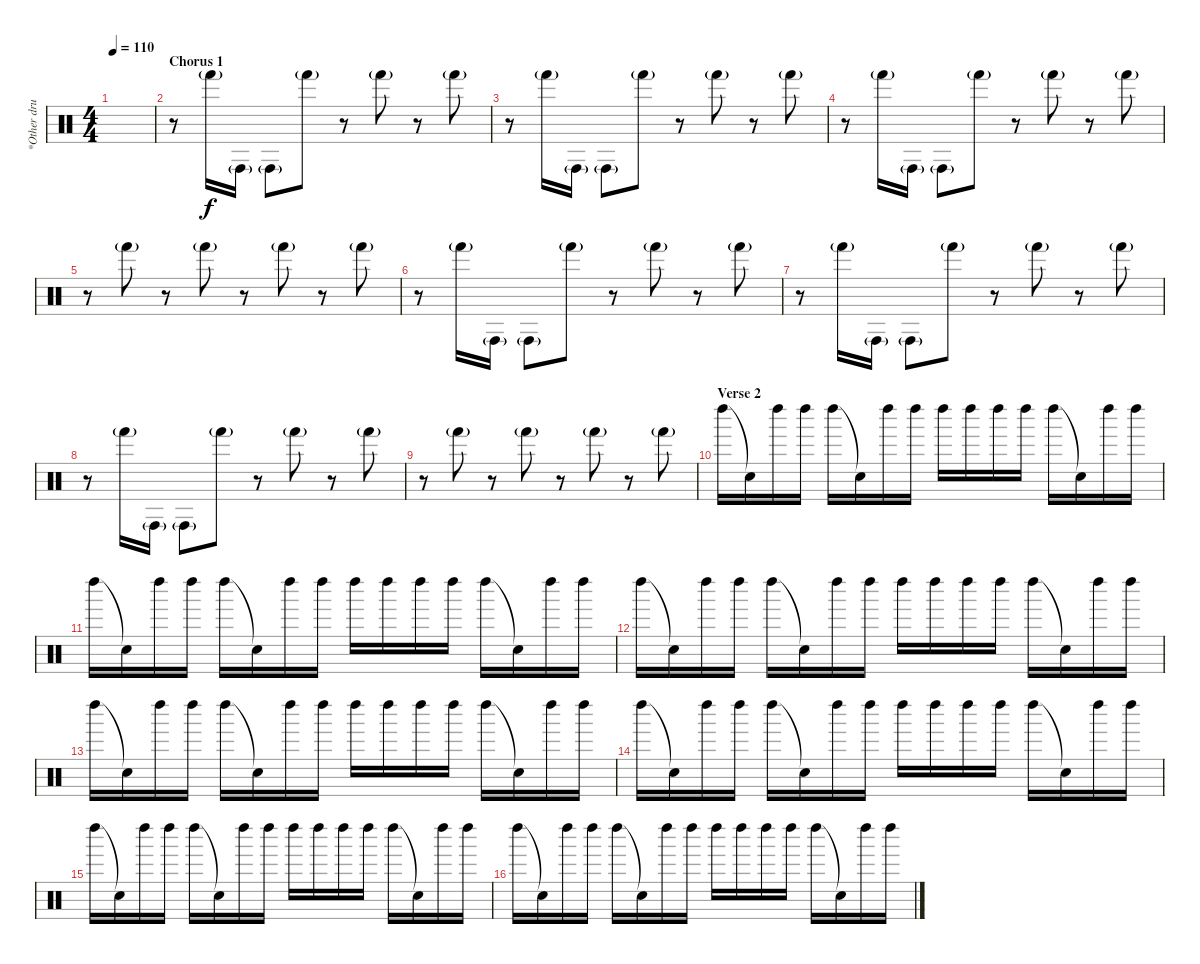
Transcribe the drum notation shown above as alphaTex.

\track ("*Other drums" "*Other dru") {instrument percussion}
\staff {score}
\articulation defaults
\ts (4 4)
\tempo 110
\clef neutral
\ks c
|
\section ("" "Chorus 1")
r.8 "Hand (hit)"{g}.16 "Conga high (hit)"{g}.16 "Conga high (hit)"{g}.8 "Hand (hit)"{g}.8 r.8 "Hand (hit)"{g}.8 r.8 "Hand (hit)"{g}.8 |
r.8 "Hand (hit)"{g}.16 "Conga high (hit)"{g}.16 "Conga high (hit)"{g}.8 "Hand (hit)"{g}.8 r.8 "Hand (hit)"{g}.8 r.8 "Hand (hit)"{g}.8 |
r.8 "Hand (hit)"{g}.16 "Conga high (hit)"{g}.16 "Conga high (hit)"{g}.8 "Hand (hit)"{g}.8 r.8 "Hand (hit)"{g}.8 r.8 "Hand (hit)"{g}.8 |
r.8 "Hand (hit)"{g}.8 r.8 "Hand (hit)"{g}.8 r.8 "Hand (hit)"{g}.8 r.8 "Hand (hit)"{g}.8 |
r.8 "Hand (hit)"{g}.16 "Conga high (hit)"{g}.16 "Conga high (hit)"{g}.8 "Hand (hit)"{g}.8 r.8 "Hand (hit)"{g}.8 r.8 "Hand (hit)"{g}.8 |
r.8 "Hand (hit)"{g}.16 "Conga high (hit)"{g}.16 "Conga high (hit)"{g}.8 "Hand (hit)"{g}.8 r.8 "Hand (hit)"{g}.8 r.8 "Hand (hit)"{g}.8 |
r.8 "Hand (hit)"{g}.16 "Conga high (hit)"{g}.16 "Conga high (hit)"{g}.8 "Hand (hit)"{g}.8 r.8 "Hand (hit)"{g}.8 r.8 "Hand (hit)"{g}.8 |
r.8 "Hand (hit)"{g}.8 r.8 "Hand (hit)"{g}.8 r.8 "Hand (hit)"{g}.8 r.8 "Hand (hit)"{g}.8 |
\section ("" "Verse 2")
"Left Maraca (hit)".16{dy f} "Snare (hit)"{t}.16 "Left Maraca (hit)".16 "Left Maraca (hit)".16 "Left Maraca (hit)".16 "Snare (hit)"{t}.16 "Left Maraca (hit)".16 "Left Maraca (hit)".16 "Left Maraca (hit)".16 "Left Maraca (hit)".16 "Left Maraca (hit)".16 "Left Maraca (hit)".16 "Left Maraca (hit)".16 "Snare (hit)"{t}.16 "Left Maraca (hit)".16 "Left Maraca (hit)".16 |
"Left Maraca (hit)".16 "Snare (hit)"{t}.16 "Left Maraca (hit)".16 "Left Maraca (hit)".16 "Left Maraca (hit)".16 "Snare (hit)"{t}.16 "Left Maraca (hit)".16 "Left Maraca (hit)".16 "Left Maraca (hit)".16 "Left Maraca (hit)".16 "Left Maraca (hit)".16 "Left Maraca (hit)".16 "Left Maraca (hit)".16 "Snare (hit)"{t}.16 "Left Maraca (hit)".16 "Left Maraca (hit)".16 |
"Left Maraca (hit)".16 "Snare (hit)"{t}.16 "Left Maraca (hit)".16 "Left Maraca (hit)".16 "Left Maraca (hit)".16 "Snare (hit)"{t}.16 "Left Maraca (hit)".16 "Left Maraca (hit)".16 "Left Maraca (hit)".16 "Left Maraca (hit)".16 "Left Maraca (hit)".16 "Left Maraca (hit)".16 "Left Maraca (hit)".16 "Snare (hit)"{t}.16 "Left Maraca (hit)".16 "Left Maraca (hit)".16 |
"Left Maraca (hit)".16 "Snare (hit)"{t}.16 "Left Maraca (hit)".16 "Left Maraca (hit)".16 "Left Maraca (hit)".16 "Snare (hit)"{t}.16 "Left Maraca (hit)".16 "Left Maraca (hit)".16 "Left Maraca (hit)".16 "Left Maraca (hit)".16 "Left Maraca (hit)".16 "Left Maraca (hit)".16 "Left Maraca (hit)".16 "Snare (hit)"{t}.16 "Left Maraca (hit)".16 "Left Maraca (hit)".16 |
"Left Maraca (hit)".16 "Snare (hit)"{t}.16 "Left Maraca (hit)".16 "Left Maraca (hit)".16 "Left Maraca (hit)".16 "Snare (hit)"{t}.16 "Left Maraca (hit)".16 "Left Maraca (hit)".16 "Left Maraca (hit)".16 "Left Maraca (hit)".16 "Left Maraca (hit)".16 "Left Maraca (hit)".16 "Left Maraca (hit)".16 "Snare (hit)"{t}.16 "Left Maraca (hit)".16 "Left Maraca (hit)".16 |
"Left Maraca (hit)".16 "Snare (hit)"{t}.16 "Left Maraca (hit)".16 "Left Maraca (hit)".16 "Left Maraca (hit)".16 "Snare (hit)"{t}.16 "Left Maraca (hit)".16 "Left Maraca (hit)".16 "Left Maraca (hit)".16 "Left Maraca (hit)".16 "Left Maraca (hit)".16 "Left Maraca (hit)".16 "Left Maraca (hit)".16 "Snare (hit)"{t}.16 "Left Maraca (hit)".16 "Left Maraca (hit)".16 |
"Left Maraca (hit)".16 "Snare (hit)"{t}.16 "Left Maraca (hit)".16 "Left Maraca (hit)".16 "Left Maraca (hit)".16 "Snare (hit)"{t}.16 "Left Maraca (hit)".16 "Left Maraca (hit)".16 "Left Maraca (hit)".16 "Left Maraca (hit)".16 "Left Maraca (hit)".16 "Left Maraca (hit)".16 "Left Maraca (hit)".16 "Snare (hit)"{t}.16 "Left Maraca (hit)".16 "Left Maraca (hit)".16
